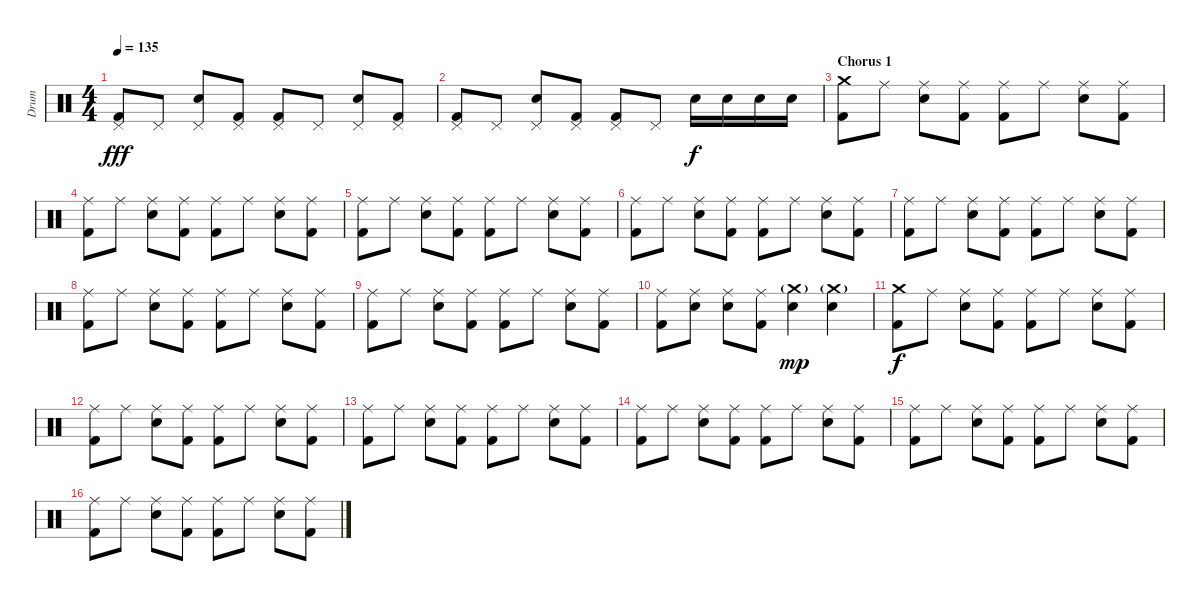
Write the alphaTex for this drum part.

\track ("Drum" "Drum") {instrument percussion}
\staff {score}
\articulation defaults
\ts (4 4)
\tempo 135
\clef neutral
\ks c
("Pedal Hi-Hat (hit)" "Kick (hit) 2").8{dy fff} "Pedal Hi-Hat (hit)".8 ("Pedal Hi-Hat (hit)" "Snare (hit) 2").8 ("Pedal Hi-Hat (hit)" "Kick (hit) 2").8 ("Pedal Hi-Hat (hit)" "Kick (hit) 2").8 "Pedal Hi-Hat (hit)".8 ("Pedal Hi-Hat (hit)" "Snare (hit) 2").8 ("Pedal Hi-Hat (hit)" "Kick (hit) 2").8 |
("Pedal Hi-Hat (hit)" "Kick (hit) 2").8 "Pedal Hi-Hat (hit)".8 ("Pedal Hi-Hat (hit)" "Snare (hit) 2").8 ("Pedal Hi-Hat (hit)" "Kick (hit) 2").8 ("Pedal Hi-Hat (hit)" "Kick (hit) 2").8 "Pedal Hi-Hat (hit)".8 "Snare (hit) 2".16{dy f} "Snare (hit) 2".16 "Snare (hit) 2".16 "Snare (hit) 2".16 |
\section ("" "Chorus 1")
("Crash medium (hit)" "Kick (hit) 2").8 "Ride (middle)".8 ("Ride (middle)" "Snare (hit) 2").8 ("Ride (middle)" "Kick (hit) 2").8 ("Ride (middle)" "Kick (hit) 2").8 "Ride (middle)".8 ("Ride (middle)" "Snare (hit) 2").8 ("Ride (middle)" "Kick (hit) 2").8 |
("Ride (middle)" "Kick (hit) 2").8 "Ride (middle)".8 ("Ride (middle)" "Snare (hit) 2").8 ("Ride (middle)" "Kick (hit) 2").8 ("Ride (middle)" "Kick (hit) 2").8 "Ride (middle)".8 ("Ride (middle)" "Snare (hit) 2").8 ("Ride (middle)" "Kick (hit) 2").8 |
("Ride (middle)" "Kick (hit) 2").8 "Ride (middle)".8 ("Ride (middle)" "Snare (hit) 2").8 ("Ride (middle)" "Kick (hit) 2").8 ("Ride (middle)" "Kick (hit) 2").8 "Ride (middle)".8 ("Ride (middle)" "Snare (hit) 2").8 ("Ride (middle)" "Kick (hit) 2").8 |
("Ride (middle)" "Kick (hit) 2").8 "Ride (middle)".8 ("Ride (middle)" "Snare (hit) 2").8 ("Ride (middle)" "Kick (hit) 2").8 ("Ride (middle)" "Kick (hit) 2").8 "Ride (middle)".8 ("Ride (middle)" "Snare (hit) 2").8 ("Ride (middle)" "Kick (hit) 2").8 |
("Ride (middle)" "Kick (hit) 2").8 "Ride (middle)".8 ("Ride (middle)" "Snare (hit) 2").8 ("Ride (middle)" "Kick (hit) 2").8 ("Ride (middle)" "Kick (hit) 2").8 "Ride (middle)".8 ("Ride (middle)" "Snare (hit) 2").8 ("Ride (middle)" "Kick (hit) 2").8 |
("Ride (middle)" "Kick (hit) 2").8 "Ride (middle)".8 ("Ride (middle)" "Snare (hit) 2").8 ("Ride (middle)" "Kick (hit) 2").8 ("Ride (middle)" "Kick (hit) 2").8 "Ride (middle)".8 ("Ride (middle)" "Snare (hit) 2").8 ("Ride (middle)" "Kick (hit) 2").8 |
("Ride (middle)" "Kick (hit) 2").8 "Ride (middle)".8 ("Ride (middle)" "Snare (hit) 2").8 ("Ride (middle)" "Kick (hit) 2").8 ("Ride (middle)" "Kick (hit) 2").8 "Ride (middle)".8 ("Ride (middle)" "Snare (hit) 2").8 ("Ride (middle)" "Kick (hit) 2").8 |
("Ride (middle)" "Kick (hit) 2").8 ("Ride (middle)" "Snare (hit) 2").8 ("Ride (middle)" "Snare (hit) 2").8 ("Ride (middle)" "Kick (hit) 2").8 ("Crash medium (hit)"{g} "Snare (hit) 2").4{dy mp} ("Crash medium (hit)"{g} "Snare (hit) 2").4 |
("Crash medium (hit)" "Kick (hit) 2").8{dy f} "Ride (middle)".8 ("Ride (middle)" "Snare (hit) 2").8 ("Ride (middle)" "Kick (hit) 2").8 ("Ride (middle)" "Kick (hit) 2").8 "Ride (middle)".8 ("Ride (middle)" "Snare (hit) 2").8 ("Ride (middle)" "Kick (hit) 2").8 |
("Ride (middle)" "Kick (hit) 2").8 "Ride (middle)".8 ("Ride (middle)" "Snare (hit) 2").8 ("Ride (middle)" "Kick (hit) 2").8 ("Ride (middle)" "Kick (hit) 2").8 "Ride (middle)".8 ("Ride (middle)" "Snare (hit) 2").8 ("Ride (middle)" "Kick (hit) 2").8 |
("Ride (middle)" "Kick (hit) 2").8 "Ride (middle)".8 ("Ride (middle)" "Snare (hit) 2").8 ("Ride (middle)" "Kick (hit) 2").8 ("Ride (middle)" "Kick (hit) 2").8 "Ride (middle)".8 ("Ride (middle)" "Snare (hit) 2").8 ("Ride (middle)" "Kick (hit) 2").8 |
("Ride (middle)" "Kick (hit) 2").8 "Ride (middle)".8 ("Ride (middle)" "Snare (hit) 2").8 ("Ride (middle)" "Kick (hit) 2").8 ("Ride (middle)" "Kick (hit) 2").8 "Ride (middle)".8 ("Ride (middle)" "Snare (hit) 2").8 ("Ride (middle)" "Kick (hit) 2").8 |
("Ride (middle)" "Kick (hit) 2").8 "Ride (middle)".8 ("Ride (middle)" "Snare (hit) 2").8 ("Ride (middle)" "Kick (hit) 2").8 ("Ride (middle)" "Kick (hit) 2").8 "Ride (middle)".8 ("Ride (middle)" "Snare (hit) 2").8 ("Ride (middle)" "Kick (hit) 2").8 |
("Ride (middle)" "Kick (hit) 2").8 "Ride (middle)".8 ("Ride (middle)" "Snare (hit) 2").8 ("Ride (middle)" "Kick (hit) 2").8 ("Ride (middle)" "Kick (hit) 2").8 "Ride (middle)".8 ("Ride (middle)" "Snare (hit) 2").8 ("Ride (middle)" "Kick (hit) 2").8
